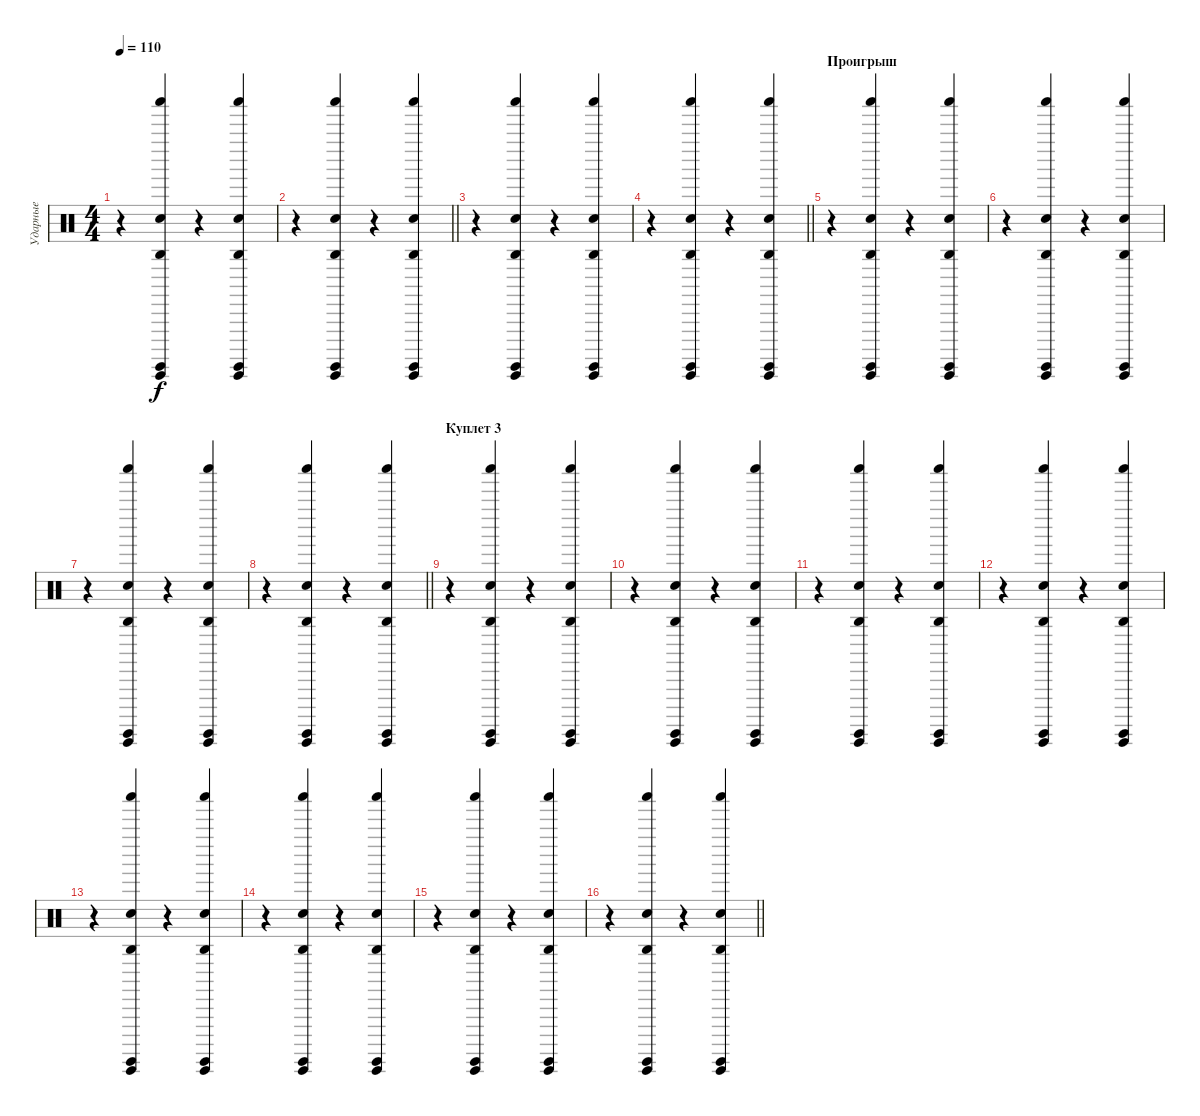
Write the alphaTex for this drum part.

\track ("Ударные" "Ударные") {instrument percussion}
\staff {score}
\articulation defaults
\ts (4 4)
\tempo 110
\clef neutral
\ks c
r.4{dy f} ("Agogo high (hit)" "Hand Clap (hit)" "Guiro (hit)" "Shaker (hit)" "Surdo (hit)").4 r.4 ("Agogo high (hit)" "Hand Clap (hit)" "Guiro (hit)" "Shaker (hit)" "Surdo (hit)").4 |
\barLineRight lightlight
r.4 ("Agogo high (hit)" "Hand Clap (hit)" "Guiro (hit)" "Shaker (hit)" "Surdo (hit)").4 r.4 ("Agogo high (hit)" "Hand Clap (hit)" "Guiro (hit)" "Shaker (hit)" "Surdo (hit)").4 |
r.4 ("Agogo high (hit)" "Hand Clap (hit)" "Guiro (hit)" "Shaker (hit)" "Surdo (hit)").4 r.4 ("Agogo high (hit)" "Hand Clap (hit)" "Guiro (hit)" "Shaker (hit)" "Surdo (hit)").4 |
\barLineRight lightlight
r.4 ("Agogo high (hit)" "Hand Clap (hit)" "Guiro (hit)" "Shaker (hit)" "Surdo (hit)").4 r.4 ("Agogo high (hit)" "Hand Clap (hit)" "Guiro (hit)" "Shaker (hit)" "Surdo (hit)").4 |
\section ("" "Проигрыш")
r.4 ("Agogo high (hit)" "Hand Clap (hit)" "Guiro (hit)" "Shaker (hit)" "Surdo (hit)").4 r.4 ("Agogo high (hit)" "Hand Clap (hit)" "Guiro (hit)" "Shaker (hit)" "Surdo (hit)").4 |
r.4 ("Agogo high (hit)" "Hand Clap (hit)" "Guiro (hit)" "Shaker (hit)" "Surdo (hit)").4 r.4 ("Agogo high (hit)" "Hand Clap (hit)" "Guiro (hit)" "Shaker (hit)" "Surdo (hit)").4 |
r.4 ("Agogo high (hit)" "Hand Clap (hit)" "Guiro (hit)" "Shaker (hit)" "Surdo (hit)").4 r.4 ("Agogo high (hit)" "Hand Clap (hit)" "Guiro (hit)" "Shaker (hit)" "Surdo (hit)").4 |
\barLineRight lightlight
r.4 ("Agogo high (hit)" "Hand Clap (hit)" "Guiro (hit)" "Shaker (hit)" "Surdo (hit)").4 r.4 ("Agogo high (hit)" "Hand Clap (hit)" "Guiro (hit)" "Shaker (hit)" "Surdo (hit)").4 |
\section ("" "Куплет 3")
r.4 ("Agogo high (hit)" "Hand Clap (hit)" "Guiro (hit)" "Shaker (hit)" "Surdo (hit)").4 r.4 ("Agogo high (hit)" "Hand Clap (hit)" "Guiro (hit)" "Shaker (hit)" "Surdo (hit)").4 |
r.4 ("Agogo high (hit)" "Hand Clap (hit)" "Guiro (hit)" "Shaker (hit)" "Surdo (hit)").4 r.4 ("Agogo high (hit)" "Hand Clap (hit)" "Guiro (hit)" "Shaker (hit)" "Surdo (hit)").4 |
r.4 ("Agogo high (hit)" "Hand Clap (hit)" "Guiro (hit)" "Shaker (hit)" "Surdo (hit)").4 r.4 ("Agogo high (hit)" "Hand Clap (hit)" "Guiro (hit)" "Shaker (hit)" "Surdo (hit)").4 |
r.4 ("Agogo high (hit)" "Hand Clap (hit)" "Guiro (hit)" "Shaker (hit)" "Surdo (hit)").4 r.4 ("Agogo high (hit)" "Hand Clap (hit)" "Guiro (hit)" "Shaker (hit)" "Surdo (hit)").4 |
r.4 ("Agogo high (hit)" "Hand Clap (hit)" "Guiro (hit)" "Shaker (hit)" "Surdo (hit)").4 r.4 ("Agogo high (hit)" "Hand Clap (hit)" "Guiro (hit)" "Shaker (hit)" "Surdo (hit)").4 |
r.4 ("Agogo high (hit)" "Hand Clap (hit)" "Guiro (hit)" "Shaker (hit)" "Surdo (hit)").4 r.4 ("Agogo high (hit)" "Hand Clap (hit)" "Guiro (hit)" "Shaker (hit)" "Surdo (hit)").4 |
r.4 ("Agogo high (hit)" "Hand Clap (hit)" "Guiro (hit)" "Shaker (hit)" "Surdo (hit)").4 r.4 ("Agogo high (hit)" "Hand Clap (hit)" "Guiro (hit)" "Shaker (hit)" "Surdo (hit)").4 |
\barLineRight lightlight
r.4 ("Agogo high (hit)" "Hand Clap (hit)" "Guiro (hit)" "Shaker (hit)" "Surdo (hit)").4 r.4 ("Agogo high (hit)" "Hand Clap (hit)" "Guiro (hit)" "Shaker (hit)" "Surdo (hit)").4
